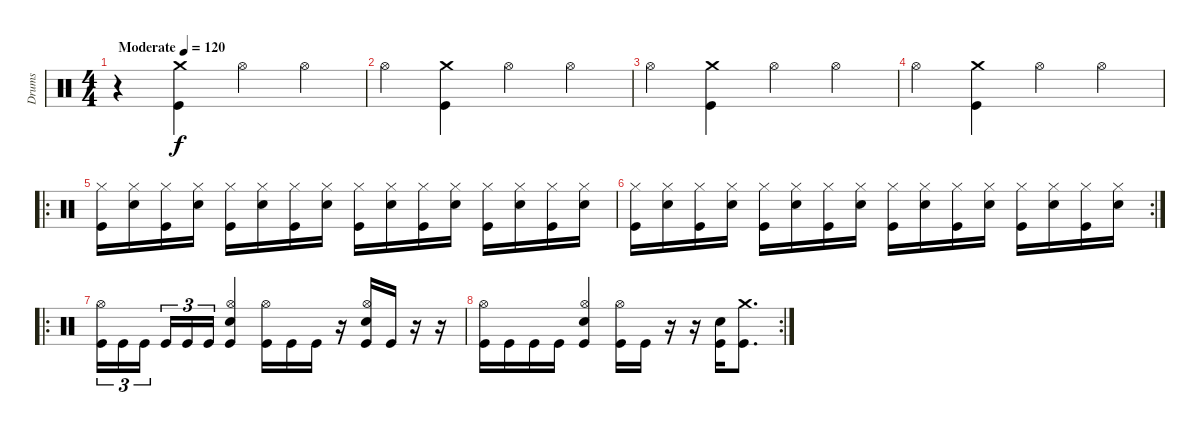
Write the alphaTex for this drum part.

\track ("Drums" "Drums") {instrument percussion}
\staff {score}
\articulation defaults
\ts (4 4)
\tempo (120 "Moderate")
\clef neutral
\ks c
r.4{dy f} ("Crash medium (hit)" "Kick (hit)").4 "Hi-Hat (open)".4 "Hi-Hat (open)".4 |
"Hi-Hat (open)".4 ("Crash medium (hit)" "Kick (hit)").4 "Hi-Hat (open)".4 "Hi-Hat (open)".4 |
"Hi-Hat (open)".4 ("Crash medium (hit)" "Kick (hit)").4 "Hi-Hat (open)".4 "Hi-Hat (open)".4 |
"Hi-Hat (open)".4 ("Crash medium (hit)" "Kick (hit)").4 "Hi-Hat (open)".4 "Hi-Hat (open)".4 |
\ro
("Hi-Hat (closed)" "Kick (hit)").16 ("Hi-Hat (closed)" "Snare (hit) 2").16 ("Hi-Hat (closed)" "Kick (hit)").16 ("Hi-Hat (closed)" "Snare (hit) 2").16 ("Hi-Hat (closed)" "Kick (hit)").16 ("Hi-Hat (closed)" "Snare (hit) 2").16 ("Hi-Hat (closed)" "Kick (hit)").16 ("Hi-Hat (closed)" "Snare (hit) 2").16 ("Hi-Hat (closed)" "Kick (hit)").16 ("Hi-Hat (closed)" "Snare (hit) 2").16 ("Hi-Hat (closed)" "Kick (hit)").16 ("Hi-Hat (closed)" "Snare (hit) 2").16 ("Hi-Hat (closed)" "Kick (hit)").16 ("Hi-Hat (closed)" "Snare (hit) 2").16 ("Hi-Hat (closed)" "Kick (hit)").16 ("Hi-Hat (closed)" "Snare (hit) 2").16 |
\rc 2
("Hi-Hat (closed)" "Kick (hit)").16 ("Hi-Hat (closed)" "Snare (hit) 2").16 ("Hi-Hat (closed)" "Kick (hit)").16 ("Hi-Hat (closed)" "Snare (hit) 2").16 ("Hi-Hat (closed)" "Kick (hit)").16 ("Hi-Hat (closed)" "Snare (hit) 2").16 ("Hi-Hat (closed)" "Kick (hit)").16 ("Hi-Hat (closed)" "Snare (hit) 2").16 ("Hi-Hat (closed)" "Kick (hit)").16 ("Hi-Hat (closed)" "Snare (hit) 2").16 ("Hi-Hat (closed)" "Kick (hit)").16 ("Hi-Hat (closed)" "Snare (hit) 2").16 ("Hi-Hat (closed)" "Kick (hit)").16 ("Hi-Hat (closed)" "Snare (hit) 2").16 ("Hi-Hat (closed)" "Kick (hit)").16 ("Hi-Hat (closed)" "Snare (hit) 2").16 |
\ro
("Hi-Hat (open)" "Kick (hit)").16{tu (3 2)} "Kick (hit)".16{tu (3 2)} "Kick (hit)".16{tu (3 2) beam splitsecondary} "Kick (hit)".16{tu (3 2)} "Kick (hit)".16{tu (3 2)} "Kick (hit)".16{tu (3 2)} ("Hi-Hat (open)" "Snare (hit) 2" "Kick (hit)").4 ("Hi-Hat (open)" "Kick (hit)").16 "Kick (hit)".16 "Kick (hit)".16 r.16 ("Hi-Hat (open)" "Snare (hit) 2" "Kick (hit)").16 "Kick (hit)".16 r.16 r.16 |
\rc 2
("Hi-Hat (open)" "Kick (hit)").16 "Kick (hit)".16 "Kick (hit)".16 "Kick (hit)".16 ("Hi-Hat (open)" "Snare (hit) 2" "Kick (hit)").4 ("Hi-Hat (open)" "Kick (hit)").16 "Kick (hit)".16 r.16 r.16 ("Snare (hit) 2" "Kick (hit)").16 ("Crash medium (hit)" "Kick (hit)").8{d}
